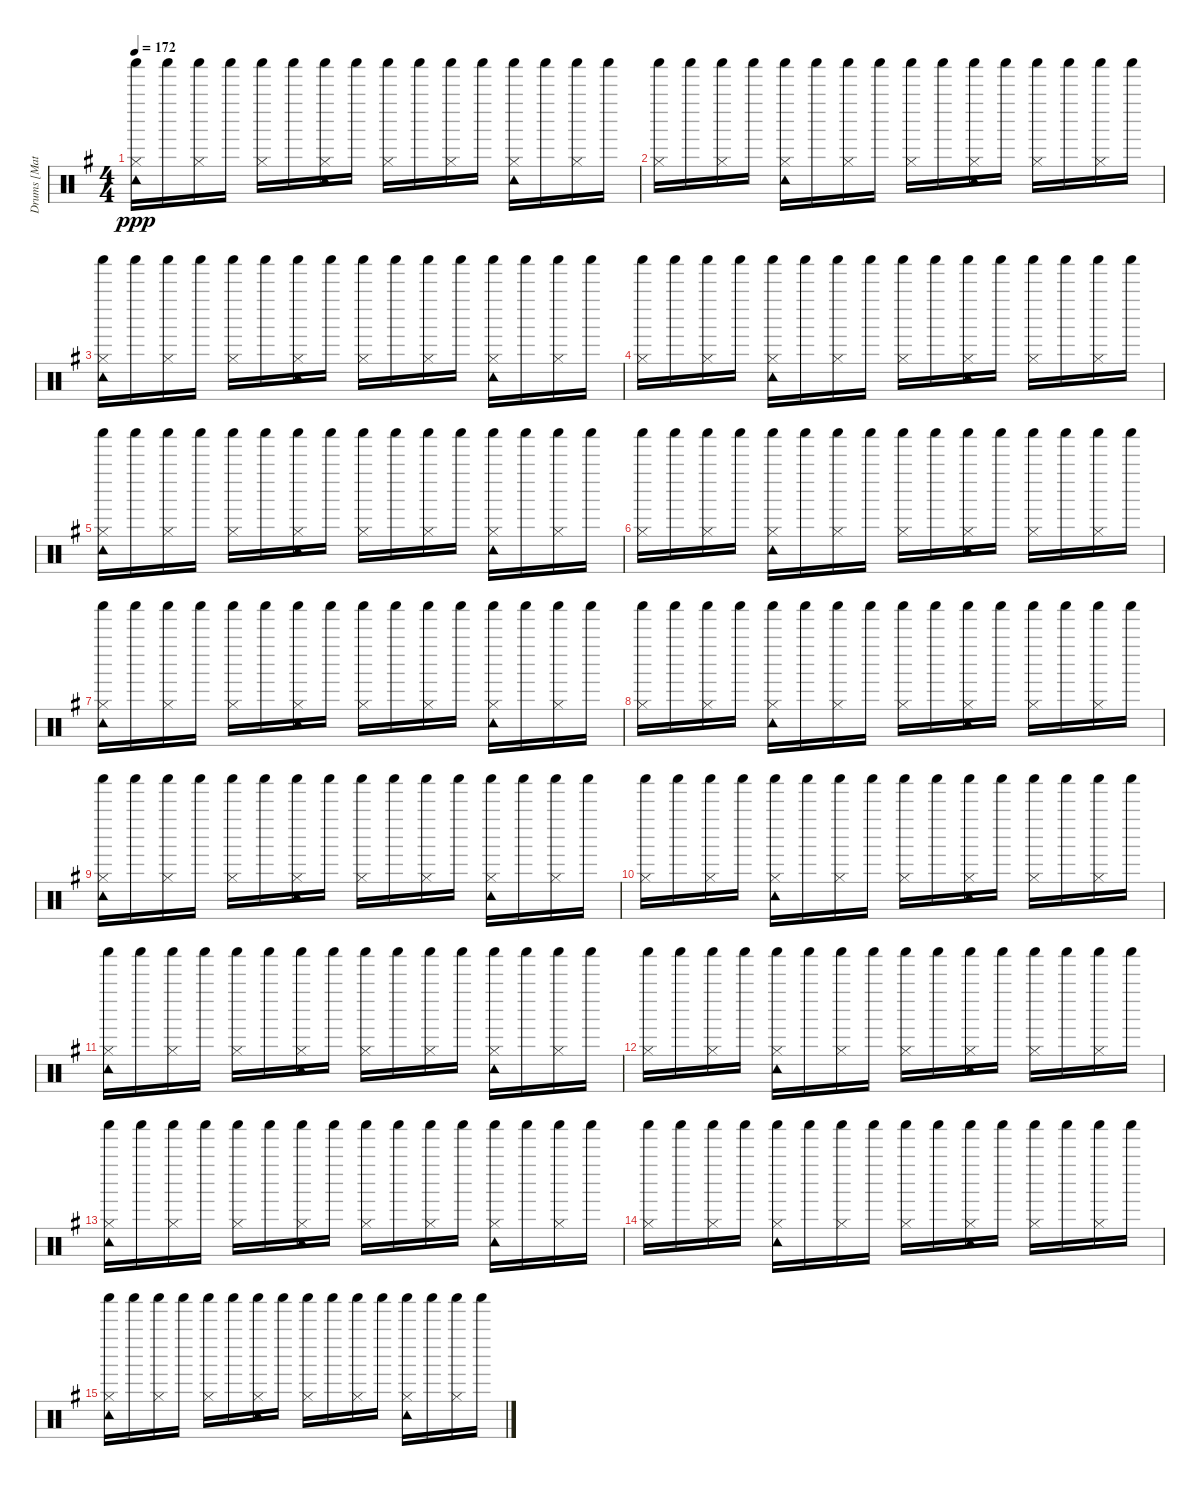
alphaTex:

\track ("Drums [Matt]" "Drums [Mat") {instrument percussion}
\staff {score}
\articulation defaults
\ts (4 4)
\tempo 172
\clef neutral
\ks g
("Hi-Hat (closed)" "Tambourine (hit)" "Shaker (hit)").16{dy ppp} "Shaker (hit)".16 ("Hi-Hat (closed)" "Shaker (hit)").16 "Shaker (hit)".16 ("Hi-Hat (closed)" "Shaker (hit)").16 "Shaker (hit)".16 ("Hi-Hat (closed)" "Tambourine (hit)" "Shaker (hit)").16 "Shaker (hit)".16 ("Hi-Hat (closed)" "Shaker (hit)").16 "Shaker (hit)".16 ("Hi-Hat (closed)" "Shaker (hit)").16 "Shaker (hit)".16 ("Hi-Hat (closed)" "Tambourine (hit)" "Shaker (hit)").16 "Shaker (hit)".16 ("Hi-Hat (closed)" "Shaker (hit)").16 "Shaker (hit)".16 |
("Hi-Hat (closed)" "Shaker (hit)").16 "Shaker (hit)".16 ("Hi-Hat (closed)" "Shaker (hit)").16 "Shaker (hit)".16 ("Hi-Hat (closed)" "Tambourine (hit)" "Shaker (hit)").16 "Shaker (hit)".16 ("Hi-Hat (closed)" "Shaker (hit)").16 "Shaker (hit)".16 ("Hi-Hat (closed)" "Shaker (hit)").16 "Shaker (hit)".16 ("Hi-Hat (closed)" "Tambourine (hit)" "Shaker (hit)").16 "Shaker (hit)".16 ("Hi-Hat (closed)" "Shaker (hit)").16 "Shaker (hit)".16 ("Hi-Hat (closed)" "Shaker (hit)").16 "Shaker (hit)".16 |
("Hi-Hat (closed)" "Tambourine (hit)" "Shaker (hit)").16 "Shaker (hit)".16 ("Hi-Hat (closed)" "Shaker (hit)").16 "Shaker (hit)".16 ("Hi-Hat (closed)" "Shaker (hit)").16 "Shaker (hit)".16 ("Hi-Hat (closed)" "Tambourine (hit)" "Shaker (hit)").16 "Shaker (hit)".16 ("Hi-Hat (closed)" "Shaker (hit)").16 "Shaker (hit)".16 ("Hi-Hat (closed)" "Shaker (hit)").16 "Shaker (hit)".16 ("Hi-Hat (closed)" "Tambourine (hit)" "Shaker (hit)").16 "Shaker (hit)".16 ("Hi-Hat (closed)" "Shaker (hit)").16 "Shaker (hit)".16 |
("Hi-Hat (closed)" "Shaker (hit)").16 "Shaker (hit)".16 ("Hi-Hat (closed)" "Shaker (hit)").16 "Shaker (hit)".16 ("Hi-Hat (closed)" "Tambourine (hit)" "Shaker (hit)").16 "Shaker (hit)".16 ("Hi-Hat (closed)" "Shaker (hit)").16 "Shaker (hit)".16 ("Hi-Hat (closed)" "Shaker (hit)").16 "Shaker (hit)".16 ("Hi-Hat (closed)" "Tambourine (hit)" "Shaker (hit)").16 "Shaker (hit)".16 ("Hi-Hat (closed)" "Shaker (hit)").16 "Shaker (hit)".16 ("Hi-Hat (closed)" "Shaker (hit)").16 "Shaker (hit)".16 |
("Hi-Hat (closed)" "Tambourine (hit)" "Shaker (hit)").16 "Shaker (hit)".16 ("Hi-Hat (closed)" "Shaker (hit)").16 "Shaker (hit)".16 ("Hi-Hat (closed)" "Shaker (hit)").16 "Shaker (hit)".16 ("Hi-Hat (closed)" "Tambourine (hit)" "Shaker (hit)").16 "Shaker (hit)".16 ("Hi-Hat (closed)" "Shaker (hit)").16 "Shaker (hit)".16 ("Hi-Hat (closed)" "Shaker (hit)").16 "Shaker (hit)".16 ("Hi-Hat (closed)" "Tambourine (hit)" "Shaker (hit)").16 "Shaker (hit)".16 ("Hi-Hat (closed)" "Shaker (hit)").16 "Shaker (hit)".16 |
("Hi-Hat (closed)" "Shaker (hit)").16{volume 9} "Shaker (hit)".16 ("Hi-Hat (closed)" "Shaker (hit)").16 "Shaker (hit)".16 ("Hi-Hat (closed)" "Tambourine (hit)" "Shaker (hit)").16 "Shaker (hit)".16 ("Hi-Hat (closed)" "Shaker (hit)").16 "Shaker (hit)".16 ("Hi-Hat (closed)" "Shaker (hit)").16 "Shaker (hit)".16 ("Hi-Hat (closed)" "Tambourine (hit)" "Shaker (hit)").16 "Shaker (hit)".16 ("Hi-Hat (closed)" "Shaker (hit)").16 "Shaker (hit)".16 ("Hi-Hat (closed)" "Shaker (hit)").16 "Shaker (hit)".16 |
("Hi-Hat (closed)" "Tambourine (hit)" "Shaker (hit)").16 "Shaker (hit)".16 ("Hi-Hat (closed)" "Shaker (hit)").16 "Shaker (hit)".16 ("Hi-Hat (closed)" "Shaker (hit)").16 "Shaker (hit)".16 ("Hi-Hat (closed)" "Tambourine (hit)" "Shaker (hit)").16 "Shaker (hit)".16 ("Hi-Hat (closed)" "Shaker (hit)").16 "Shaker (hit)".16 ("Hi-Hat (closed)" "Shaker (hit)").16 "Shaker (hit)".16 ("Hi-Hat (closed)" "Tambourine (hit)" "Shaker (hit)").16 "Shaker (hit)".16 ("Hi-Hat (closed)" "Shaker (hit)").16 "Shaker (hit)".16 |
("Hi-Hat (closed)" "Shaker (hit)").16 "Shaker (hit)".16 ("Hi-Hat (closed)" "Shaker (hit)").16 "Shaker (hit)".16 ("Hi-Hat (closed)" "Tambourine (hit)" "Shaker (hit)").16 "Shaker (hit)".16 ("Hi-Hat (closed)" "Shaker (hit)").16 "Shaker (hit)".16 ("Hi-Hat (closed)" "Shaker (hit)").16 "Shaker (hit)".16 ("Hi-Hat (closed)" "Tambourine (hit)" "Shaker (hit)").16 "Shaker (hit)".16 ("Hi-Hat (closed)" "Shaker (hit)").16 "Shaker (hit)".16 ("Hi-Hat (closed)" "Shaker (hit)").16 "Shaker (hit)".16 |
("Hi-Hat (closed)" "Tambourine (hit)" "Shaker (hit)").16 "Shaker (hit)".16 ("Hi-Hat (closed)" "Shaker (hit)").16 "Shaker (hit)".16 ("Hi-Hat (closed)" "Shaker (hit)").16 "Shaker (hit)".16 ("Hi-Hat (closed)" "Tambourine (hit)" "Shaker (hit)").16 "Shaker (hit)".16 ("Hi-Hat (closed)" "Shaker (hit)").16 "Shaker (hit)".16 ("Hi-Hat (closed)" "Shaker (hit)").16 "Shaker (hit)".16 ("Hi-Hat (closed)" "Tambourine (hit)" "Shaker (hit)").16 "Shaker (hit)".16 ("Hi-Hat (closed)" "Shaker (hit)").16 "Shaker (hit)".16 |
("Hi-Hat (closed)" "Shaker (hit)").16{volume 5} "Shaker (hit)".16 ("Hi-Hat (closed)" "Shaker (hit)").16 "Shaker (hit)".16 ("Hi-Hat (closed)" "Tambourine (hit)" "Shaker (hit)").16 "Shaker (hit)".16 ("Hi-Hat (closed)" "Shaker (hit)").16 "Shaker (hit)".16 ("Hi-Hat (closed)" "Shaker (hit)").16 "Shaker (hit)".16 ("Hi-Hat (closed)" "Tambourine (hit)" "Shaker (hit)").16 "Shaker (hit)".16 ("Hi-Hat (closed)" "Shaker (hit)").16 "Shaker (hit)".16 ("Hi-Hat (closed)" "Shaker (hit)").16 "Shaker (hit)".16 |
("Hi-Hat (closed)" "Tambourine (hit)" "Shaker (hit)").16 "Shaker (hit)".16 ("Hi-Hat (closed)" "Shaker (hit)").16 "Shaker (hit)".16 ("Hi-Hat (closed)" "Shaker (hit)").16 "Shaker (hit)".16 ("Hi-Hat (closed)" "Tambourine (hit)" "Shaker (hit)").16 "Shaker (hit)".16 ("Hi-Hat (closed)" "Shaker (hit)").16 "Shaker (hit)".16 ("Hi-Hat (closed)" "Shaker (hit)").16 "Shaker (hit)".16 ("Hi-Hat (closed)" "Tambourine (hit)" "Shaker (hit)").16 "Shaker (hit)".16 ("Hi-Hat (closed)" "Shaker (hit)").16 "Shaker (hit)".16 |
("Hi-Hat (closed)" "Shaker (hit)").16 "Shaker (hit)".16 ("Hi-Hat (closed)" "Shaker (hit)").16 "Shaker (hit)".16 ("Hi-Hat (closed)" "Tambourine (hit)" "Shaker (hit)").16 "Shaker (hit)".16 ("Hi-Hat (closed)" "Shaker (hit)").16 "Shaker (hit)".16 ("Hi-Hat (closed)" "Shaker (hit)").16 "Shaker (hit)".16 ("Hi-Hat (closed)" "Tambourine (hit)" "Shaker (hit)").16 "Shaker (hit)".16 ("Hi-Hat (closed)" "Shaker (hit)").16 "Shaker (hit)".16 ("Hi-Hat (closed)" "Shaker (hit)").16 "Shaker (hit)".16 |
("Hi-Hat (closed)" "Tambourine (hit)" "Shaker (hit)").16 "Shaker (hit)".16 ("Hi-Hat (closed)" "Shaker (hit)").16 "Shaker (hit)".16 ("Hi-Hat (closed)" "Shaker (hit)").16 "Shaker (hit)".16 ("Hi-Hat (closed)" "Tambourine (hit)" "Shaker (hit)").16 "Shaker (hit)".16 ("Hi-Hat (closed)" "Shaker (hit)").16 "Shaker (hit)".16 ("Hi-Hat (closed)" "Shaker (hit)").16 "Shaker (hit)".16 ("Hi-Hat (closed)" "Tambourine (hit)" "Shaker (hit)").16 "Shaker (hit)".16 ("Hi-Hat (closed)" "Shaker (hit)").16 "Shaker (hit)".16 |
("Hi-Hat (closed)" "Shaker (hit)").16{volume 0} "Shaker (hit)".16 ("Hi-Hat (closed)" "Shaker (hit)").16 "Shaker (hit)".16 ("Hi-Hat (closed)" "Tambourine (hit)" "Shaker (hit)").16 "Shaker (hit)".16 ("Hi-Hat (closed)" "Shaker (hit)").16 "Shaker (hit)".16 ("Hi-Hat (closed)" "Shaker (hit)").16 "Shaker (hit)".16 ("Hi-Hat (closed)" "Tambourine (hit)" "Shaker (hit)").16 "Shaker (hit)".16 ("Hi-Hat (closed)" "Shaker (hit)").16 "Shaker (hit)".16 ("Hi-Hat (closed)" "Shaker (hit)").16 "Shaker (hit)".16 |
("Hi-Hat (closed)" "Tambourine (hit)" "Shaker (hit)").16 "Shaker (hit)".16 ("Hi-Hat (closed)" "Shaker (hit)").16 "Shaker (hit)".16 ("Hi-Hat (closed)" "Shaker (hit)").16 "Shaker (hit)".16 ("Hi-Hat (closed)" "Tambourine (hit)" "Shaker (hit)").16 "Shaker (hit)".16 ("Hi-Hat (closed)" "Shaker (hit)").16 "Shaker (hit)".16 ("Hi-Hat (closed)" "Shaker (hit)").16 "Shaker (hit)".16 ("Hi-Hat (closed)" "Tambourine (hit)" "Shaker (hit)").16 "Shaker (hit)".16 ("Hi-Hat (closed)" "Shaker (hit)").16 "Shaker (hit)".16
